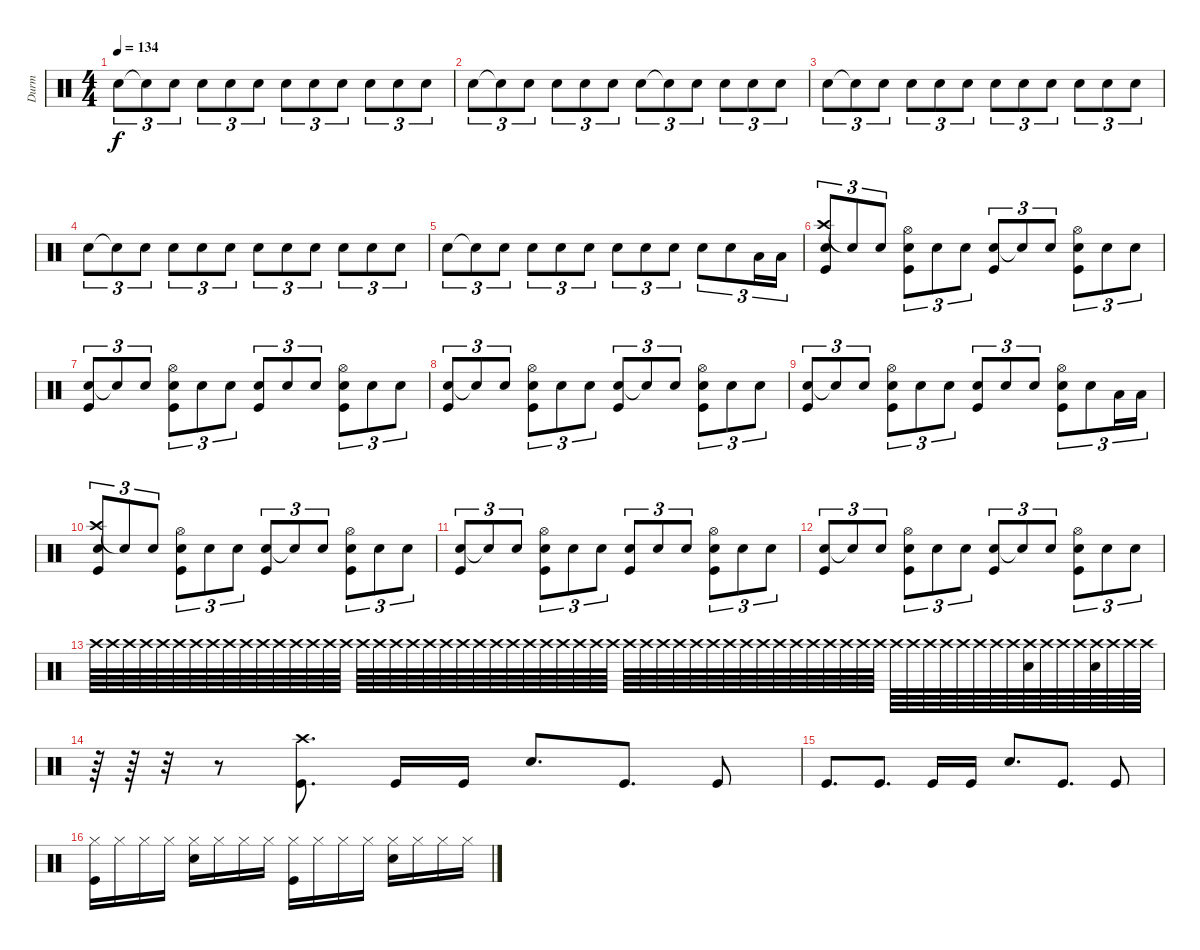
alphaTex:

\track ("Durm" "Durm") {instrument percussion}
\staff {score}
\articulation defaults
\ts (4 4)
\tempo 134
\clef neutral
\ks c "Electric Snare (hit)".8{tu (3 2) dy f} "Electric Snare (hit)"{t}.8{tu (3 2)} "Electric Snare (hit)".8{tu (3 2)} "Electric Snare (hit)".8{tu (3 2)} "Electric Snare (hit)".8{tu (3 2)} "Electric Snare (hit)".8{tu (3 2)} "Electric Snare (hit)".8{tu (3 2)} "Electric Snare (hit)".8{tu (3 2)} "Electric Snare (hit)".8{tu (3 2)} "Electric Snare (hit)".8{tu (3 2)} "Electric Snare (hit)".8{tu (3 2)} "Electric Snare (hit)".8{tu (3 2)}
|
"Electric Snare (hit)".8{tu (3 2)} "Electric Snare (hit)"{t}.8{tu (3 2)} "Electric Snare (hit)".8{tu (3 2)} "Electric Snare (hit)".8{tu (3 2)} "Electric Snare (hit)".8{tu (3 2)} "Electric Snare (hit)".8{tu (3 2)} "Electric Snare (hit)".8{tu (3 2)} "Electric Snare (hit)"{t}.8{tu (3 2)} "Electric Snare (hit)".8{tu (3 2)} "Electric Snare (hit)".8{tu (3 2)} "Electric Snare (hit)".8{tu (3 2)} "Electric Snare (hit)".8{tu (3 2)} |
"Electric Snare (hit)".8{tu (3 2)} "Electric Snare (hit)"{t}.8{tu (3 2)} "Electric Snare (hit)".8{tu (3 2)} "Electric Snare (hit)".8{tu (3 2)} "Electric Snare (hit)".8{tu (3 2)} "Electric Snare (hit)".8{tu (3 2)} "Electric Snare (hit)".8{tu (3 2)} "Electric Snare (hit)".8{tu (3 2)} "Electric Snare (hit)".8{tu (3 2)} "Electric Snare (hit)".8{tu (3 2)} "Electric Snare (hit)".8{tu (3 2)} "Electric Snare (hit)".8{tu (3 2)} |
"Electric Snare (hit)".8{tu (3 2)} "Electric Snare (hit)"{t}.8{tu (3 2)} "Electric Snare (hit)".8{tu (3 2)} "Electric Snare (hit)".8{tu (3 2)} "Electric Snare (hit)".8{tu (3 2)} "Electric Snare (hit)".8{tu (3 2)} "Electric Snare (hit)".8{tu (3 2)} "Electric Snare (hit)".8{tu (3 2)} "Electric Snare (hit)".8{tu (3 2)} "Electric Snare (hit)".8{tu (3 2)} "Electric Snare (hit)".8{tu (3 2)} "Electric Snare (hit)".8{tu (3 2)} |
"Electric Snare (hit)".8{tu (3 2)} "Electric Snare (hit)"{t}.8{tu (3 2)} "Electric Snare (hit)".8{tu (3 2)} "Electric Snare (hit)".8{tu (3 2)} "Electric Snare (hit)".8{tu (3 2)} "Electric Snare (hit)".8{tu (3 2)} "Electric Snare (hit)".8{tu (3 2)} "Electric Snare (hit)".8{tu (3 2)} "Electric Snare (hit)".8{tu (3 2)} "Electric Snare (hit)".8{tu (3 2)} "Electric Snare (hit)".8{tu (3 2)} "Low Floor Tom (hit)".16{tu (3 2)} "Low Floor Tom (hit)".16{tu (3 2)} |
("Crash high (hit)" "Electric Snare (hit)" "Kick (hit)").8{tu (3 2)} "Electric Snare (hit)"{t}.8{tu (3 2)} "Electric Snare (hit)".8{tu (3 2)} ("Hi-Hat (open)" "Electric Snare (hit)" "Kick (hit)").8{tu (3 2)} "Electric Snare (hit)".8{tu (3 2)} "Electric Snare (hit)".8{tu (3 2)} ("Electric Snare (hit)" "Kick (hit)").8{tu (3 2)} "Electric Snare (hit)"{t}.8{tu (3 2)} "Electric Snare (hit)".8{tu (3 2)} ("Hi-Hat (open)" "Electric Snare (hit)" "Kick (hit)").8{tu (3 2)} "Electric Snare (hit)".8{tu (3 2)} "Electric Snare (hit)".8{tu (3 2)} |
("Electric Snare (hit)" "Kick (hit)").8{tu (3 2)} "Electric Snare (hit)"{t}.8{tu (3 2)} "Electric Snare (hit)".8{tu (3 2)} ("Hi-Hat (open)" "Electric Snare (hit)" "Kick (hit)").8{tu (3 2)} "Electric Snare (hit)".8{tu (3 2)} "Electric Snare (hit)".8{tu (3 2)} ("Electric Snare (hit)" "Kick (hit)").8{tu (3 2)} "Electric Snare (hit)".8{tu (3 2)} "Electric Snare (hit)".8{tu (3 2)} ("Hi-Hat (open)" "Electric Snare (hit)" "Kick (hit)").8{tu (3 2)} "Electric Snare (hit)".8{tu (3 2)} "Electric Snare (hit)".8{tu (3 2)} |
("Electric Snare (hit)" "Kick (hit)").8{tu (3 2)} "Electric Snare (hit)"{t}.8{tu (3 2)} "Electric Snare (hit)".8{tu (3 2)} ("Hi-Hat (open)" "Electric Snare (hit)" "Kick (hit)").8{tu (3 2)} "Electric Snare (hit)".8{tu (3 2)} "Electric Snare (hit)".8{tu (3 2)} ("Electric Snare (hit)" "Kick (hit)").8{tu (3 2)} "Electric Snare (hit)"{t}.8{tu (3 2)} "Electric Snare (hit)".8{tu (3 2)} ("Hi-Hat (open)" "Electric Snare (hit)" "Kick (hit)").8{tu (3 2)} "Electric Snare (hit)".8{tu (3 2)} "Electric Snare (hit)".8{tu (3 2)} |
("Electric Snare (hit)" "Kick (hit)").8{tu (3 2)} "Electric Snare (hit)"{t}.8{tu (3 2)} "Electric Snare (hit)".8{tu (3 2)} ("Hi-Hat (open)" "Electric Snare (hit)" "Kick (hit)").8{tu (3 2)} "Electric Snare (hit)".8{tu (3 2)} "Electric Snare (hit)".8{tu (3 2)} ("Electric Snare (hit)" "Kick (hit)").8{tu (3 2)} "Electric Snare (hit)".8{tu (3 2)} "Electric Snare (hit)".8{tu (3 2)} ("Hi-Hat (open)" "Electric Snare (hit)" "Kick (hit)").8{tu (3 2)} "Electric Snare (hit)".8{tu (3 2)} "Low Floor Tom (hit)".16{tu (3 2)} "Low Floor Tom (hit)".16{tu (3 2)} |
("Crash high (hit)" "Electric Snare (hit)" "Kick (hit)").8{tu (3 2)} "Electric Snare (hit)"{t}.8{tu (3 2)} "Electric Snare (hit)".8{tu (3 2)} ("Hi-Hat (open)" "Electric Snare (hit)" "Kick (hit)").8{tu (3 2)} "Electric Snare (hit)".8{tu (3 2)} "Electric Snare (hit)".8{tu (3 2)} ("Electric Snare (hit)" "Kick (hit)").8{tu (3 2)} "Electric Snare (hit)"{t}.8{tu (3 2)} "Electric Snare (hit)".8{tu (3 2)} ("Hi-Hat (open)" "Electric Snare (hit)" "Kick (hit)").8{tu (3 2)} "Electric Snare (hit)".8{tu (3 2)} "Electric Snare (hit)".8{tu (3 2)} |
("Electric Snare (hit)" "Kick (hit)").8{tu (3 2)} "Electric Snare (hit)"{t}.8{tu (3 2)} "Electric Snare (hit)".8{tu (3 2)} ("Hi-Hat (open)" "Electric Snare (hit)" "Kick (hit)").8{tu (3 2)} "Electric Snare (hit)".8{tu (3 2)} "Electric Snare (hit)".8{tu (3 2)} ("Electric Snare (hit)" "Kick (hit)").8{tu (3 2)} "Electric Snare (hit)".8{tu (3 2)} "Electric Snare (hit)".8{tu (3 2)} ("Hi-Hat (open)" "Electric Snare (hit)" "Kick (hit)").8{tu (3 2)} "Electric Snare (hit)".8{tu (3 2)} "Electric Snare (hit)".8{tu (3 2)} |
("Electric Snare (hit)" "Kick (hit)").8{tu (3 2)} "Electric Snare (hit)"{t}.8{tu (3 2)} "Electric Snare (hit)".8{tu (3 2)} ("Hi-Hat (open)" "Electric Snare (hit)" "Kick (hit)").8{tu (3 2)} "Electric Snare (hit)".8{tu (3 2)} "Electric Snare (hit)".8{tu (3 2)} ("Electric Snare (hit)" "Kick (hit)").8{tu (3 2)} "Electric Snare (hit)"{t}.8{tu (3 2)} "Electric Snare (hit)".8{tu (3 2)} ("Hi-Hat (open)" "Electric Snare (hit)" "Kick (hit)").8{tu (3 2)} "Electric Snare (hit)".8{tu (3 2)} "Electric Snare (hit)".8{tu (3 2)} |
"Crash high (hit)".64{volume 0} "Crash high (hit)".64{volume 16} "Crash high (hit)".64 "Crash high (hit)".64 "Crash high (hit)".64 "Crash high (hit)".64 "Crash high (hit)".64 "Crash high (hit)".64 "Crash high (hit)".64 "Crash high (hit)".64 "Crash high (hit)".64 "Crash high (hit)".64 "Crash high (hit)".64 "Crash high (hit)".64 "Crash high (hit)".64 "Crash high (hit)".64 "Crash high (hit)".64 "Crash high (hit)".64 "Crash high (hit)".64 "Crash high (hit)".64 "Crash high (hit)".64 "Crash high (hit)".64 "Crash high (hit)".64 "Crash high (hit)".64 "Crash high (hit)".64 "Crash high (hit)".64 "Crash high (hit)".64 "Crash high (hit)".64 "Crash high (hit)".64 "Crash high (hit)".64 "Crash high (hit)".64 "Crash high (hit)".64 "Crash high (hit)".64 "Crash high (hit)".64 "Crash high (hit)".64 "Crash high (hit)".64 "Crash high (hit)".64 "Crash high (hit)".64 "Crash high (hit)".64 "Crash high (hit)".64 "Crash high (hit)".64 "Crash high (hit)".64 "Crash high (hit)".64 "Crash high (hit)".64 "Crash high (hit)".64 "Crash high (hit)".64 "Crash high (hit)".64 "Crash high (hit)".64 "Crash high (hit)".64 "Crash high (hit)".64 "Crash high (hit)".64 "Crash high (hit)".64 "Crash high (hit)".64 "Crash high (hit)".64 "Crash high (hit)".64 "Crash high (hit)".64 ("Crash high (hit)" "Electric Snare (hit)").64 "Crash high (hit)".64 "Crash high (hit)".64 "Crash high (hit)".64 ("Crash high (hit)" "Electric Snare (hit)").64 "Crash high (hit)".64 "Crash high (hit)".64 "Crash high (hit)".64 |
r.64 r.64{volume 0} r.32 r.8 ("Crash high (hit)" "Kick (hit)").8{d volume 16} "Kick (hit)".16 "Kick (hit)".16 "Electric Snare (hit)".8{d} "Kick (hit)".8{d} "Kick (hit)".8 |
"Kick (hit)".8{d} "Kick (hit)".8{d} "Kick (hit)".16 "Kick (hit)".16 "Electric Snare (hit)".8{d} "Kick (hit)".8{d} "Kick (hit)".8 |
("Hi-Hat (closed)" "Kick (hit)").16 "Hi-Hat (closed)".16 "Hi-Hat (closed)".16 "Hi-Hat (closed)".16 ("Hi-Hat (closed)" "Electric Snare (hit)").16 "Hi-Hat (closed)".16 "Hi-Hat (closed)".16 "Hi-Hat (closed)".16 ("Hi-Hat (closed)" "Kick (hit)").16 "Hi-Hat (closed)".16 "Hi-Hat (closed)".16 "Hi-Hat (closed)".16 ("Hi-Hat (closed)" "Electric Snare (hit)").16 "Hi-Hat (closed)".16 "Hi-Hat (closed)".16 "Hi-Hat (closed)".16
